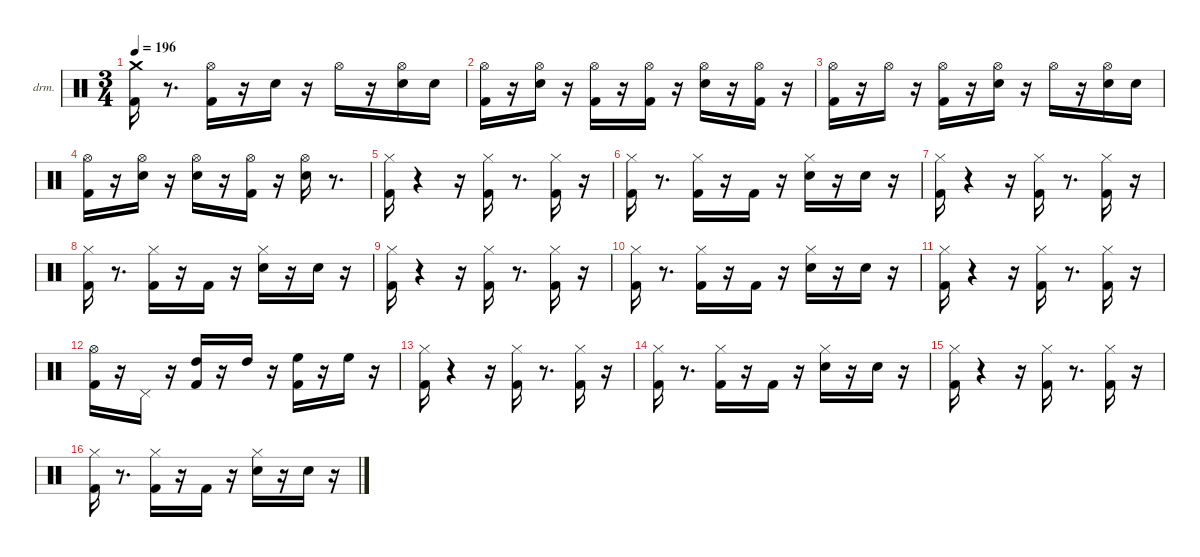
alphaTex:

\hideDynamics
\bracketExtendMode nobrackets
\firstSystemTrackNameOrientation horizontal
\otherSystemsTrackNameOrientation horizontal
\track ("EZdrummer 3" "drm.") {instrument percussion}
\staff {score}
\articulation defaults
\ts (3 4)
\tempo 196
\clef neutral
\ks aminor
("Kick (hit) 2" "Crash medium (hit)").16{dy fff beam Down} r.8{d beam Down} ("Kick (hit) 2" "Hi-Hat (open)"{acc #}).16{dy f beam Down} r.16{beam Down} "Snare (hit) 2".16{dy ff beam Down} r.16{beam Down} "Hi-Hat (open)"{acc #}.16{dy f beam Down} r.16{beam Down} ("Snare (hit) 2" "Hi-Hat (open)"{acc #}).16{beam Down} "Snare (hit) 2".16{dy mp beam Down} |
("Kick (hit) 2" "Hi-Hat (open)"{acc #}).16{dy fff beam Down} r.16{beam Down} ("Snare (hit) 2" "Hi-Hat (open)"{acc #}).16{dy ff beam Down} r.16{beam Down} ("Kick (hit) 2" "Hi-Hat (open)"{acc #}).16{dy mf beam Down} r.16{beam Down} ("Kick (hit) 2" "Hi-Hat (open)"{acc #}).16{dy fff beam Down} r.16{beam Down} ("Snare (hit) 2" "Hi-Hat (open)"{acc #}).16{dy ff beam Down} r.16{beam Down} ("Kick (hit) 2" "Hi-Hat (open)"{acc #}).16{dy mp beam Down} r.16{beam Down} |
("Kick (hit) 2" "Hi-Hat (open)"{acc #}).16{dy fff beam Down} r.16{beam Down} "Hi-Hat (open)"{acc #}.16{dy pp beam Down} r.16{beam Down} ("Kick (hit) 2" "Hi-Hat (open)"{acc #}).16{dy f beam Down} r.16{beam Down} ("Snare (hit) 2" "Hi-Hat (open)"{acc #}).16{dy ff beam Down} r.16{beam Down} "Hi-Hat (open)"{acc #}.16{dy fff beam Down} r.16{beam Down} ("Snare (hit) 2" "Hi-Hat (open)"{acc #}).16{dy f beam Down} "Snare (hit) 2".16{dy mp beam Down} |
("Kick (hit) 2" "Hi-Hat (open)"{acc #}).16{dy fff beam Down} r.16{beam Down} ("Snare (hit) 2" "Hi-Hat (open)"{acc #}).16{dy ff beam Down} r.16{beam Down} ("Snare (hit) 2" "Hi-Hat (open)"{acc #}).16{dy pp beam Down} r.16{beam Down} ("Kick (hit) 2" "Hi-Hat (open)"{acc #}).16{dy f beam Down} r.16{beam Down} ("Snare (hit) 2" "Hi-Hat (open)"{acc #}).16{dy ff beam Down} r.8{d beam Down} |
("Kick (hit) 2" "Hi-Hat (closed)"{acc #}).16{dy fff beam Down} r.4{beam Down} r.16{beam Down} ("Kick (hit) 2" "Hi-Hat (closed)"{acc #}).16{dy ff beam Down} r.8{d beam Down} ("Kick (hit) 2" "Hi-Hat (closed)"{acc #}).16{dy mf beam Down} r.16{beam Down} |
("Kick (hit) 2" "Hi-Hat (closed)"{acc #}).16{dy ff beam Down} r.8{d beam Down} ("Kick (hit) 2" "Hi-Hat (closed)"{acc #}).16{dy mf beam Down} r.16{beam Down} "Kick (hit) 2".16{dy ff beam Up} r.16{beam Up} ("Snare (hit) 2" "Hi-Hat (closed)"{acc #}).16{dy f beam Down} r.16{beam Down} "Snare (hit) 2".16{dy p beam Down} r.16{beam Down} |
("Kick (hit) 2" "Hi-Hat (closed)"{acc #}).16{dy fff beam Down} r.4{beam Down} r.16{beam Down} ("Kick (hit) 2" "Hi-Hat (closed)"{acc #}).16{dy f beam Down} r.8{d beam Down} ("Kick (hit) 2" "Hi-Hat (closed)"{acc #}).16{dy mf beam Down} r.16{beam Down} |
("Kick (hit) 2" "Hi-Hat (closed)"{acc #}).16{dy ff beam Down} r.8{d beam Down} ("Kick (hit) 2" "Hi-Hat (closed)"{acc #}).16{dy mp beam Down} r.16{beam Down} "Kick (hit) 2".16{dy f beam Up} r.16{beam Up} ("Snare (hit) 2" "Hi-Hat (closed)"{acc #}).16{dy mf beam Down} r.16{beam Down} "Snare (hit) 2".16{dy p beam Down} r.16{beam Down} |
("Kick (hit) 2" "Hi-Hat (closed)"{acc #}).16{dy fff beam Down} r.4{beam Down} r.16{beam Down} ("Kick (hit) 2" "Hi-Hat (closed)"{acc #}).16{dy ff beam Down} r.8{d beam Down} ("Kick (hit) 2" "Hi-Hat (closed)"{acc #}).16{dy mf beam Down} r.16{beam Down} |
("Kick (hit) 2" "Hi-Hat (closed)"{acc #}).16{dy ff beam Down} r.8{d beam Down} ("Kick (hit) 2" "Hi-Hat (closed)"{acc #}).16{dy mf beam Down} r.16{beam Down} "Kick (hit) 2".16{dy ff beam Up} r.16{beam Up} ("Snare (hit) 2" "Hi-Hat (closed)"{acc #}).16{dy f beam Down} r.16{beam Down} "Snare (hit) 2".16{dy p beam Down} r.16{beam Down} |
("Kick (hit) 2" "Hi-Hat (closed)"{acc #}).16{dy fff beam Down} r.4{beam Down} r.16{beam Down} ("Kick (hit) 2" "Hi-Hat (closed)"{acc #}).16{dy f beam Down} r.8{d beam Down} ("Kick (hit) 2" "Hi-Hat (closed)"{acc #}).16{dy mf beam Down} r.16{beam Down} |
("Kick (hit) 2" "Hi-Hat (open)"{acc #}).16{dy fff beam Down} r.16{beam Down} "Pedal Hi-Hat (hit)"{acc #}.16{dy ff beam Up} r.16{beam Up} ("Kick (hit) 2" "High Tom (hit)").16{dy mf beam Up} r.16{beam Up} "High Tom (hit)".16{beam Down} r.16{beam Down} ("Kick (hit) 2" "High Floor Tom (hit)").16{dy f beam Down} r.16{beam Down} "High Floor Tom (hit)".16{dy mp beam Down} r.16{beam Down} |
("Kick (hit) 2" "Hi-Hat (closed)"{acc #}).16{dy fff beam Down} r.4{beam Down} r.16{beam Down} ("Kick (hit) 2" "Hi-Hat (closed)"{acc #}).16{dy ff beam Down} r.8{d beam Down} ("Kick (hit) 2" "Hi-Hat (closed)"{acc #}).16{dy mf beam Down} r.16{beam Down} |
("Kick (hit) 2" "Hi-Hat (closed)"{acc #}).16{dy ff beam Down} r.8{d beam Down} ("Kick (hit) 2" "Hi-Hat (closed)"{acc #}).16{dy mf beam Down} r.16{beam Down} "Kick (hit) 2".16{dy ff beam Up} r.16{beam Up} ("Snare (hit) 2" "Hi-Hat (closed)"{acc #}).16{dy f beam Down} r.16{beam Down} "Snare (hit) 2".16{dy p beam Down} r.16{beam Down} |
("Kick (hit) 2" "Hi-Hat (closed)"{acc #}).16{dy fff beam Down} r.4{beam Down} r.16{beam Down} ("Kick (hit) 2" "Hi-Hat (closed)"{acc #}).16{dy f beam Down} r.8{d beam Down} ("Kick (hit) 2" "Hi-Hat (closed)"{acc #}).16{dy mf beam Down} r.16{beam Down} |
("Kick (hit) 2" "Hi-Hat (closed)"{acc #}).16{dy ff beam Down} r.8{d beam Down} ("Kick (hit) 2" "Hi-Hat (closed)"{acc #}).16{dy mp beam Down} r.16{beam Down} "Kick (hit) 2".16{dy f beam Up} r.16{beam Up} ("Snare (hit) 2" "Hi-Hat (closed)"{acc #}).16{dy mf beam Down} r.16{beam Down} "Snare (hit) 2".16{dy p beam Down} r.16{beam Down}
